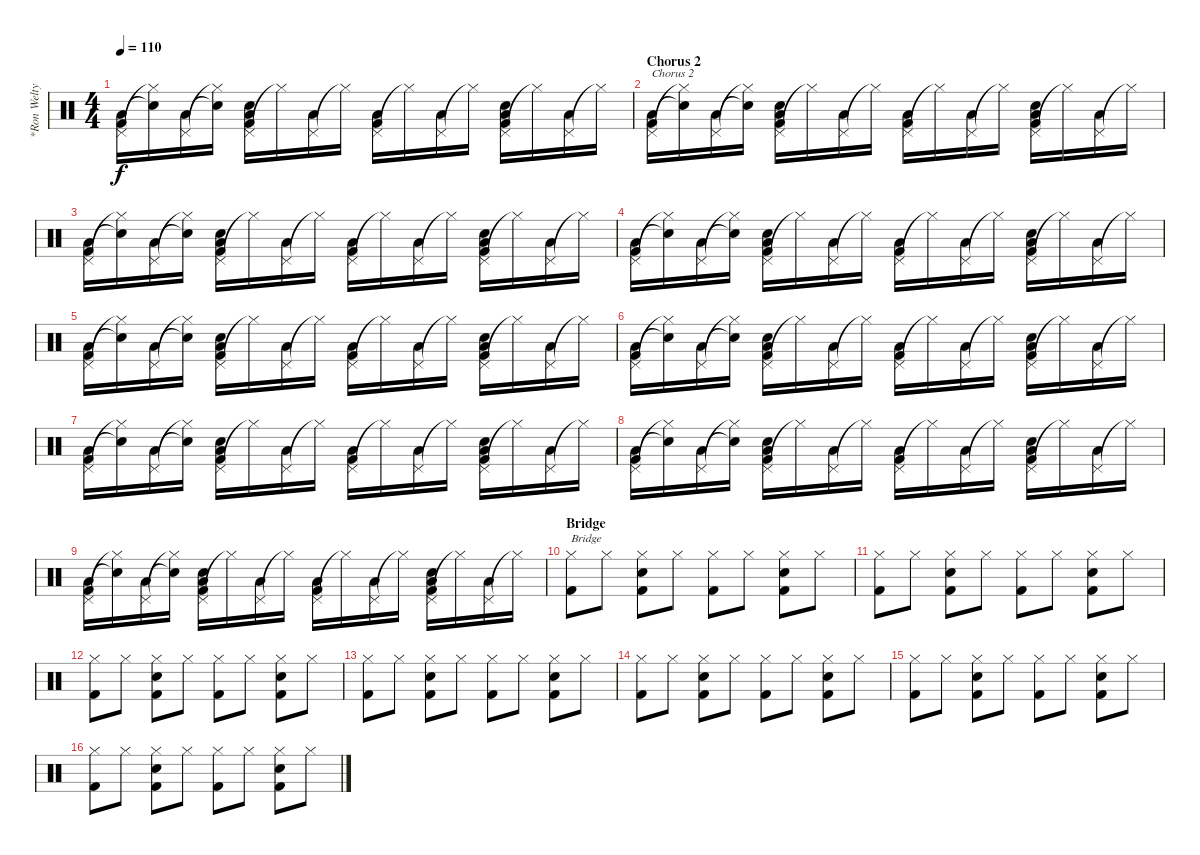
\track ("*Ron Welty (Ex-drummer)" "*Ron Welty") {instrument percussion}
\staff {score}
\articulation defaults
\ts (4 4)
\tempo 110
\clef neutral
\ks c
("Pedal Hi-Hat (hit)" "Low Floor Tom (hit)" "Kick (hit) 2").16{dy f} ("Hi-Hat (closed)"{t} "Snare (hit)"{t}).16 ("Pedal Hi-Hat (hit)" "Low Floor Tom (hit)").16 ("Hi-Hat (closed)"{t} "Snare (hit)"{t}).16 ("Pedal Hi-Hat (hit)" "Snare (hit) 2" "Low Floor Tom (hit)" "Kick (hit) 2").16 "Hi-Hat (closed)"{t}.16 ("Pedal Hi-Hat (hit)" "Low Floor Tom (hit)").16 "Hi-Hat (closed)"{t}.16 ("Pedal Hi-Hat (hit)" "Low Floor Tom (hit)" "Kick (hit) 2").16 "Hi-Hat (closed)"{t}.16 ("Pedal Hi-Hat (hit)" "Low Floor Tom (hit)").16 "Hi-Hat (closed)"{t}.16 ("Pedal Hi-Hat (hit)" "Snare (hit) 2" "Low Floor Tom (hit)" "Kick (hit) 2").16 "Hi-Hat (closed)"{t}.16 ("Pedal Hi-Hat (hit)" "Low Floor Tom (hit)").16 "Hi-Hat (closed)"{t}.16 |
\section ("" "Chorus 2")
("Pedal Hi-Hat (hit)" "Low Floor Tom (hit)" "Kick (hit) 2").16{txt "Chorus 2"} ("Hi-Hat (closed)"{t} "Snare (hit)"{t}).16 ("Pedal Hi-Hat (hit)" "Low Floor Tom (hit)").16 ("Hi-Hat (closed)"{t} "Snare (hit)"{t}).16 ("Pedal Hi-Hat (hit)" "Snare (hit) 2" "Low Floor Tom (hit)" "Kick (hit) 2").16 "Hi-Hat (closed)"{t}.16 ("Pedal Hi-Hat (hit)" "Low Floor Tom (hit)").16 "Hi-Hat (closed)"{t}.16 ("Pedal Hi-Hat (hit)" "Low Floor Tom (hit)" "Kick (hit) 2").16 "Hi-Hat (closed)"{t}.16 ("Pedal Hi-Hat (hit)" "Low Floor Tom (hit)").16 "Hi-Hat (closed)"{t}.16 ("Pedal Hi-Hat (hit)" "Snare (hit) 2" "Low Floor Tom (hit)" "Kick (hit) 2").16 "Hi-Hat (closed)"{t}.16 ("Pedal Hi-Hat (hit)" "Low Floor Tom (hit)").16 "Hi-Hat (closed)"{t}.16 |
("Pedal Hi-Hat (hit)" "Low Floor Tom (hit)" "Kick (hit) 2").16 ("Hi-Hat (closed)"{t} "Snare (hit)"{t}).16 ("Pedal Hi-Hat (hit)" "Low Floor Tom (hit)").16 ("Hi-Hat (closed)"{t} "Snare (hit)"{t}).16 ("Pedal Hi-Hat (hit)" "Snare (hit) 2" "Low Floor Tom (hit)" "Kick (hit) 2").16 "Hi-Hat (closed)"{t}.16 ("Pedal Hi-Hat (hit)" "Low Floor Tom (hit)").16 "Hi-Hat (closed)"{t}.16 ("Pedal Hi-Hat (hit)" "Low Floor Tom (hit)" "Kick (hit) 2").16 "Hi-Hat (closed)"{t}.16 ("Pedal Hi-Hat (hit)" "Low Floor Tom (hit)").16 "Hi-Hat (closed)"{t}.16 ("Pedal Hi-Hat (hit)" "Snare (hit) 2" "Low Floor Tom (hit)" "Kick (hit) 2").16 "Hi-Hat (closed)"{t}.16 ("Pedal Hi-Hat (hit)" "Low Floor Tom (hit)").16 "Hi-Hat (closed)"{t}.16 |
("Pedal Hi-Hat (hit)" "Low Floor Tom (hit)" "Kick (hit) 2").16 ("Hi-Hat (closed)"{t} "Snare (hit)"{t}).16 ("Pedal Hi-Hat (hit)" "Low Floor Tom (hit)").16 ("Hi-Hat (closed)"{t} "Snare (hit)"{t}).16 ("Pedal Hi-Hat (hit)" "Snare (hit) 2" "Low Floor Tom (hit)" "Kick (hit) 2").16 "Hi-Hat (closed)"{t}.16 ("Pedal Hi-Hat (hit)" "Low Floor Tom (hit)").16 "Hi-Hat (closed)"{t}.16 ("Pedal Hi-Hat (hit)" "Low Floor Tom (hit)" "Kick (hit) 2").16 "Hi-Hat (closed)"{t}.16 ("Pedal Hi-Hat (hit)" "Low Floor Tom (hit)").16 "Hi-Hat (closed)"{t}.16 ("Pedal Hi-Hat (hit)" "Snare (hit) 2" "Low Floor Tom (hit)" "Kick (hit) 2").16 "Hi-Hat (closed)"{t}.16 ("Pedal Hi-Hat (hit)" "Low Floor Tom (hit)").16 "Hi-Hat (closed)"{t}.16 |
("Pedal Hi-Hat (hit)" "Low Floor Tom (hit)" "Kick (hit) 2").16 ("Hi-Hat (closed)"{t} "Snare (hit)"{t}).16 ("Pedal Hi-Hat (hit)" "Low Floor Tom (hit)").16 ("Hi-Hat (closed)"{t} "Snare (hit)"{t}).16 ("Pedal Hi-Hat (hit)" "Snare (hit) 2" "Low Floor Tom (hit)" "Kick (hit) 2").16 "Hi-Hat (closed)"{t}.16 ("Pedal Hi-Hat (hit)" "Low Floor Tom (hit)").16 "Hi-Hat (closed)"{t}.16 ("Pedal Hi-Hat (hit)" "Low Floor Tom (hit)" "Kick (hit) 2").16 "Hi-Hat (closed)"{t}.16 ("Pedal Hi-Hat (hit)" "Low Floor Tom (hit)").16 "Hi-Hat (closed)"{t}.16 ("Pedal Hi-Hat (hit)" "Snare (hit) 2" "Low Floor Tom (hit)" "Kick (hit) 2").16 "Hi-Hat (closed)"{t}.16 ("Pedal Hi-Hat (hit)" "Low Floor Tom (hit)").16 "Hi-Hat (closed)"{t}.16 |
("Pedal Hi-Hat (hit)" "Low Floor Tom (hit)" "Kick (hit) 2").16 ("Hi-Hat (closed)"{t} "Snare (hit)"{t}).16 ("Pedal Hi-Hat (hit)" "Low Floor Tom (hit)").16 ("Hi-Hat (closed)"{t} "Snare (hit)"{t}).16 ("Pedal Hi-Hat (hit)" "Snare (hit) 2" "Low Floor Tom (hit)" "Kick (hit) 2").16 "Hi-Hat (closed)"{t}.16 ("Pedal Hi-Hat (hit)" "Low Floor Tom (hit)").16 "Hi-Hat (closed)"{t}.16 ("Pedal Hi-Hat (hit)" "Low Floor Tom (hit)" "Kick (hit) 2").16 "Hi-Hat (closed)"{t}.16 ("Pedal Hi-Hat (hit)" "Low Floor Tom (hit)").16 "Hi-Hat (closed)"{t}.16 ("Pedal Hi-Hat (hit)" "Snare (hit) 2" "Low Floor Tom (hit)" "Kick (hit) 2").16 "Hi-Hat (closed)"{t}.16 ("Pedal Hi-Hat (hit)" "Low Floor Tom (hit)").16 "Hi-Hat (closed)"{t}.16 |
("Pedal Hi-Hat (hit)" "Low Floor Tom (hit)" "Kick (hit) 2").16 ("Hi-Hat (closed)"{t} "Snare (hit)"{t}).16 ("Pedal Hi-Hat (hit)" "Low Floor Tom (hit)").16 ("Hi-Hat (closed)"{t} "Snare (hit)"{t}).16 ("Pedal Hi-Hat (hit)" "Snare (hit) 2" "Low Floor Tom (hit)" "Kick (hit) 2").16 "Hi-Hat (closed)"{t}.16 ("Pedal Hi-Hat (hit)" "Low Floor Tom (hit)").16 "Hi-Hat (closed)"{t}.16 ("Pedal Hi-Hat (hit)" "Low Floor Tom (hit)" "Kick (hit) 2").16 "Hi-Hat (closed)"{t}.16 ("Pedal Hi-Hat (hit)" "Low Floor Tom (hit)").16 "Hi-Hat (closed)"{t}.16 ("Pedal Hi-Hat (hit)" "Snare (hit) 2" "Low Floor Tom (hit)" "Kick (hit) 2").16 "Hi-Hat (closed)"{t}.16 ("Pedal Hi-Hat (hit)" "Low Floor Tom (hit)").16 "Hi-Hat (closed)"{t}.16 |
("Pedal Hi-Hat (hit)" "Low Floor Tom (hit)" "Kick (hit) 2").16 ("Hi-Hat (closed)"{t} "Snare (hit)"{t}).16 ("Pedal Hi-Hat (hit)" "Low Floor Tom (hit)").16 ("Hi-Hat (closed)"{t} "Snare (hit)"{t}).16 ("Pedal Hi-Hat (hit)" "Snare (hit) 2" "Low Floor Tom (hit)" "Kick (hit) 2").16 "Hi-Hat (closed)"{t}.16 ("Pedal Hi-Hat (hit)" "Low Floor Tom (hit)").16 "Hi-Hat (closed)"{t}.16 ("Pedal Hi-Hat (hit)" "Low Floor Tom (hit)" "Kick (hit) 2").16 "Hi-Hat (closed)"{t}.16 ("Pedal Hi-Hat (hit)" "Low Floor Tom (hit)").16 "Hi-Hat (closed)"{t}.16 ("Pedal Hi-Hat (hit)" "Snare (hit) 2" "Low Floor Tom (hit)" "Kick (hit) 2").16 "Hi-Hat (closed)"{t}.16 ("Pedal Hi-Hat (hit)" "Low Floor Tom (hit)").16 "Hi-Hat (closed)"{t}.16 |
("Pedal Hi-Hat (hit)" "Low Floor Tom (hit)" "Kick (hit) 2").16 ("Hi-Hat (closed)"{t} "Snare (hit)"{t}).16 ("Pedal Hi-Hat (hit)" "Low Floor Tom (hit)").16 ("Hi-Hat (closed)"{t} "Snare (hit)"{t}).16 ("Pedal Hi-Hat (hit)" "Snare (hit) 2" "Low Floor Tom (hit)" "Kick (hit) 2").16 "Hi-Hat (closed)"{t}.16 ("Pedal Hi-Hat (hit)" "Low Floor Tom (hit)").16 "Hi-Hat (closed)"{t}.16 ("Pedal Hi-Hat (hit)" "Low Floor Tom (hit)" "Kick (hit) 2").16 "Hi-Hat (closed)"{t}.16 ("Pedal Hi-Hat (hit)" "Low Floor Tom (hit)").16 "Hi-Hat (closed)"{t}.16 ("Pedal Hi-Hat (hit)" "Snare (hit) 2" "Low Floor Tom (hit)" "Kick (hit) 2").16 "Hi-Hat (closed)"{t}.16 ("Pedal Hi-Hat (hit)" "Low Floor Tom (hit)").16 "Hi-Hat (closed)"{t}.16 |
\section ("" "Bridge")
("Hi-Hat (closed)" "Kick (hit) 2").8{txt "Bridge"} "Hi-Hat (closed)".8 ("Hi-Hat (closed)" "Snare (hit) 2" "Kick (hit) 2").8 "Hi-Hat (closed)".8 ("Hi-Hat (closed)" "Kick (hit) 2").8 "Hi-Hat (closed)".8 ("Hi-Hat (closed)" "Snare (hit) 2" "Kick (hit) 2").8 "Hi-Hat (closed)".8 |
("Hi-Hat (closed)" "Kick (hit) 2").8 "Hi-Hat (closed)".8 ("Hi-Hat (closed)" "Snare (hit) 2" "Kick (hit) 2").8 "Hi-Hat (closed)".8 ("Hi-Hat (closed)" "Kick (hit) 2").8 "Hi-Hat (closed)".8 ("Hi-Hat (closed)" "Snare (hit) 2" "Kick (hit) 2").8 "Hi-Hat (closed)".8 |
("Hi-Hat (closed)" "Kick (hit) 2").8 "Hi-Hat (closed)".8 ("Hi-Hat (closed)" "Snare (hit) 2" "Kick (hit) 2").8 "Hi-Hat (closed)".8 ("Hi-Hat (closed)" "Kick (hit) 2").8 "Hi-Hat (closed)".8 ("Hi-Hat (closed)" "Snare (hit) 2" "Kick (hit) 2").8 "Hi-Hat (closed)".8 |
("Hi-Hat (closed)" "Kick (hit) 2").8 "Hi-Hat (closed)".8 ("Hi-Hat (closed)" "Snare (hit) 2" "Kick (hit) 2").8 "Hi-Hat (closed)".8 ("Hi-Hat (closed)" "Kick (hit) 2").8 "Hi-Hat (closed)".8 ("Hi-Hat (closed)" "Snare (hit) 2" "Kick (hit) 2").8 "Hi-Hat (closed)".8 |
("Hi-Hat (closed)" "Kick (hit) 2").8 "Hi-Hat (closed)".8 ("Hi-Hat (closed)" "Snare (hit) 2" "Kick (hit) 2").8 "Hi-Hat (closed)".8 ("Hi-Hat (closed)" "Kick (hit) 2").8 "Hi-Hat (closed)".8 ("Hi-Hat (closed)" "Snare (hit) 2" "Kick (hit) 2").8 "Hi-Hat (closed)".8 |
("Hi-Hat (closed)" "Kick (hit) 2").8 "Hi-Hat (closed)".8 ("Hi-Hat (closed)" "Snare (hit) 2" "Kick (hit) 2").8 "Hi-Hat (closed)".8 ("Hi-Hat (closed)" "Kick (hit) 2").8 "Hi-Hat (closed)".8 ("Hi-Hat (closed)" "Snare (hit) 2" "Kick (hit) 2").8 "Hi-Hat (closed)".8 |
("Hi-Hat (closed)" "Kick (hit) 2").8 "Hi-Hat (closed)".8 ("Hi-Hat (closed)" "Snare (hit) 2" "Kick (hit) 2").8 "Hi-Hat (closed)".8 ("Hi-Hat (closed)" "Kick (hit) 2").8 "Hi-Hat (closed)".8 ("Hi-Hat (closed)" "Snare (hit) 2" "Kick (hit) 2").8 "Hi-Hat (closed)".8
